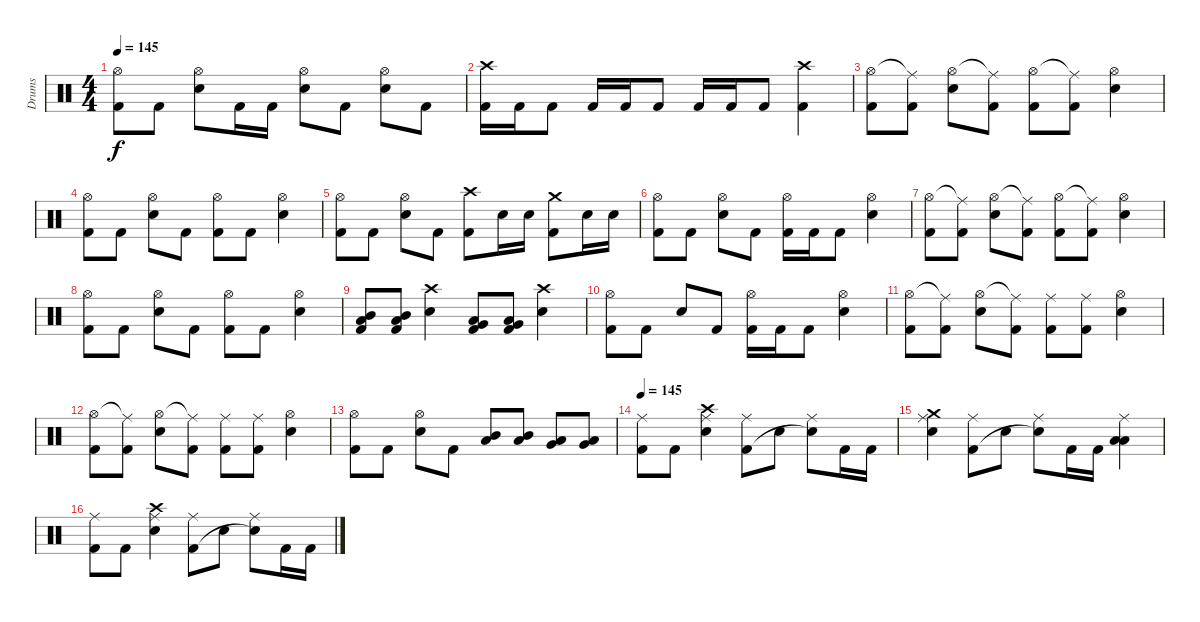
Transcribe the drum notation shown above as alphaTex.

\track ("Drums" "Drums") {instrument percussion}
\staff {score}
\articulation defaults
\ts (4 4)
\tempo 145
\clef neutral
\ks c
("Kick (hit) 2" "Hi-Hat (open)").8{dy f} "Kick (hit) 2".8 ("Electric Snare (hit)" "Hi-Hat (open)").8 "Kick (hit) 2".16 "Kick (hit) 2".16 ("Electric Snare (hit)" "Hi-Hat (open)").8 "Kick (hit) 2".8 ("Electric Snare (hit)" "Hi-Hat (open)").8 "Kick (hit) 2".8 |
("Kick (hit) 2" "Crash high (hit)").16 "Kick (hit) 2".16 "Kick (hit) 2".8 "Kick (hit) 2".16 "Kick (hit) 2".16 "Kick (hit) 2".8 "Kick (hit) 2".16 "Kick (hit) 2".16 "Kick (hit) 2".8 ("Kick (hit) 2" "Crash high (hit)").4 |
("Kick (hit) 2" "Hi-Hat (open)").8 ("Kick (hit) 2" "Ride (middle)"{t}).8 ("Electric Snare (hit)" "Hi-Hat (open)").8 ("Kick (hit) 2" "Ride (middle)"{t}).8 ("Kick (hit) 2" "Hi-Hat (open)").8 ("Kick (hit) 2" "Ride (middle)"{t}).8 ("Electric Snare (hit)" "Hi-Hat (open)").4 |
("Kick (hit) 2" "Hi-Hat (open)").8 "Kick (hit) 2".8 ("Electric Snare (hit)" "Hi-Hat (open)").8 "Kick (hit) 2".8 ("Kick (hit) 2" "Hi-Hat (open)").8 "Kick (hit) 2".8 ("Electric Snare (hit)" "Hi-Hat (open)").4 |
("Kick (hit) 2" "Hi-Hat (open)").8 "Kick (hit) 2".8 ("Electric Snare (hit)" "Hi-Hat (open)").8 "Kick (hit) 2".8 ("Kick (hit) 2" "Crash high (hit)").8 "Electric Snare (hit)".16 "Electric Snare (hit)".16 ("Kick (hit) 2" "Crash medium (hit)").8 "Electric Snare (hit)".16 "Electric Snare (hit)".16 |
("Kick (hit) 2" "Hi-Hat (open)").8 "Kick (hit) 2".8 ("Electric Snare (hit)" "Hi-Hat (open)").8 "Kick (hit) 2".8 ("Kick (hit) 2" "Hi-Hat (open)").16 "Kick (hit) 2".16 "Kick (hit) 2".8 ("Electric Snare (hit)" "Hi-Hat (open)").4 |
("Kick (hit) 2" "Hi-Hat (open)").8 ("Kick (hit) 2" "Ride (middle)"{t}).8 ("Electric Snare (hit)" "Hi-Hat (open)").8 ("Kick (hit) 2" "Ride (middle)"{t}).8 ("Kick (hit) 2" "Hi-Hat (open)").8 ("Kick (hit) 2" "Ride (middle)"{t}).8 ("Electric Snare (hit)" "Hi-Hat (open)").4 |
("Kick (hit) 2" "Hi-Hat (open)").8 "Kick (hit) 2".8 ("Electric Snare (hit)" "Hi-Hat (open)").8 "Kick (hit) 2".8 ("Kick (hit) 2" "Hi-Hat (open)").8 "Kick (hit) 2".8 ("Electric Snare (hit)" "Hi-Hat (open)").4 |
("Kick (hit) 2" "Mid Tom (hit)" "Low Tom (hit)").8 ("Kick (hit) 2" "Mid Tom (hit)" "Low Tom (hit)").8 ("Electric Snare (hit)" "Crash high (hit)").4 ("Kick (hit) 2" "Low Tom (hit)" "Very Low Tom (hit)").8 ("Kick (hit) 2" "Low Tom (hit)" "Very Low Tom (hit)").8 ("Electric Snare (hit)" "Crash high (hit)").4 |
("Kick (hit) 2" "Hi-Hat (open)").8 "Kick (hit) 2".8 "Electric Snare (hit)".8 "Kick (hit) 2".8 ("Kick (hit) 2" "Hi-Hat (open)").16 "Kick (hit) 2".16 "Kick (hit) 2".8 ("Electric Snare (hit)" "Hi-Hat (open)").4 |
("Kick (hit) 2" "Hi-Hat (open)").8 ("Kick (hit) 2" "Ride (middle)"{t}).8 ("Electric Snare (hit)" "Hi-Hat (open)").8 ("Kick (hit) 2" "Ride (middle)"{t}).8 ("Kick (hit) 2" "Ride (middle)").8 ("Kick (hit) 2" "Ride (middle)").8 ("Electric Snare (hit)" "Hi-Hat (open)").4 |
("Kick (hit) 2" "Hi-Hat (open)").8 ("Kick (hit) 2" "Ride (middle)"{t}).8 ("Electric Snare (hit)" "Hi-Hat (open)").8 ("Kick (hit) 2" "Ride (middle)"{t}).8 ("Kick (hit) 2" "Ride (middle)").8 ("Kick (hit) 2" "Ride (middle)").8 ("Electric Snare (hit)" "Hi-Hat (open)").4 |
("Kick (hit) 2" "Hi-Hat (open)").8 "Kick (hit) 2".8 ("Electric Snare (hit)" "Hi-Hat (open)").8 "Kick (hit) 2".8 ("Mid Tom (hit)" "Low Tom (hit)").8 ("Mid Tom (hit)" "Low Tom (hit)").8 ("Low Tom (hit)" "Very Low Tom (hit)").8 ("Low Tom (hit)" "Very Low Tom (hit)").8 |
\tempo 145
("Ride (middle)" "Kick (hit) 2").8 "Kick (hit) 2".8 ("Ride (middle)" "Electric Snare (hit)" "Crash high (hit)").4 ("Ride (middle)" "Kick (hit) 2").8 "Electric Snare (hit)".8 ("Ride (middle)" "Electric Snare (hit)"{t}).8 "Kick (hit) 2".16 "Kick (hit) 2".16 |
("Ride (middle)" "Electric Snare (hit)" "Crash medium (hit)").4 ("Ride (middle)" "Kick (hit) 2").8 "Electric Snare (hit)".8 ("Ride (middle)" "Electric Snare (hit)"{t}).8 "Kick (hit) 2".16 "Kick (hit) 2".16 ("Ride (middle)" "Low Tom (hit)" "Low Tom (hit)").4 |
("Ride (middle)" "Kick (hit) 2").8 "Kick (hit) 2".8 ("Ride (middle)" "Electric Snare (hit)" "Crash high (hit)").4 ("Ride (middle)" "Kick (hit) 2").8 "Electric Snare (hit)".8 ("Ride (middle)" "Electric Snare (hit)"{t}).8 "Kick (hit) 2".16 "Kick (hit) 2".16
